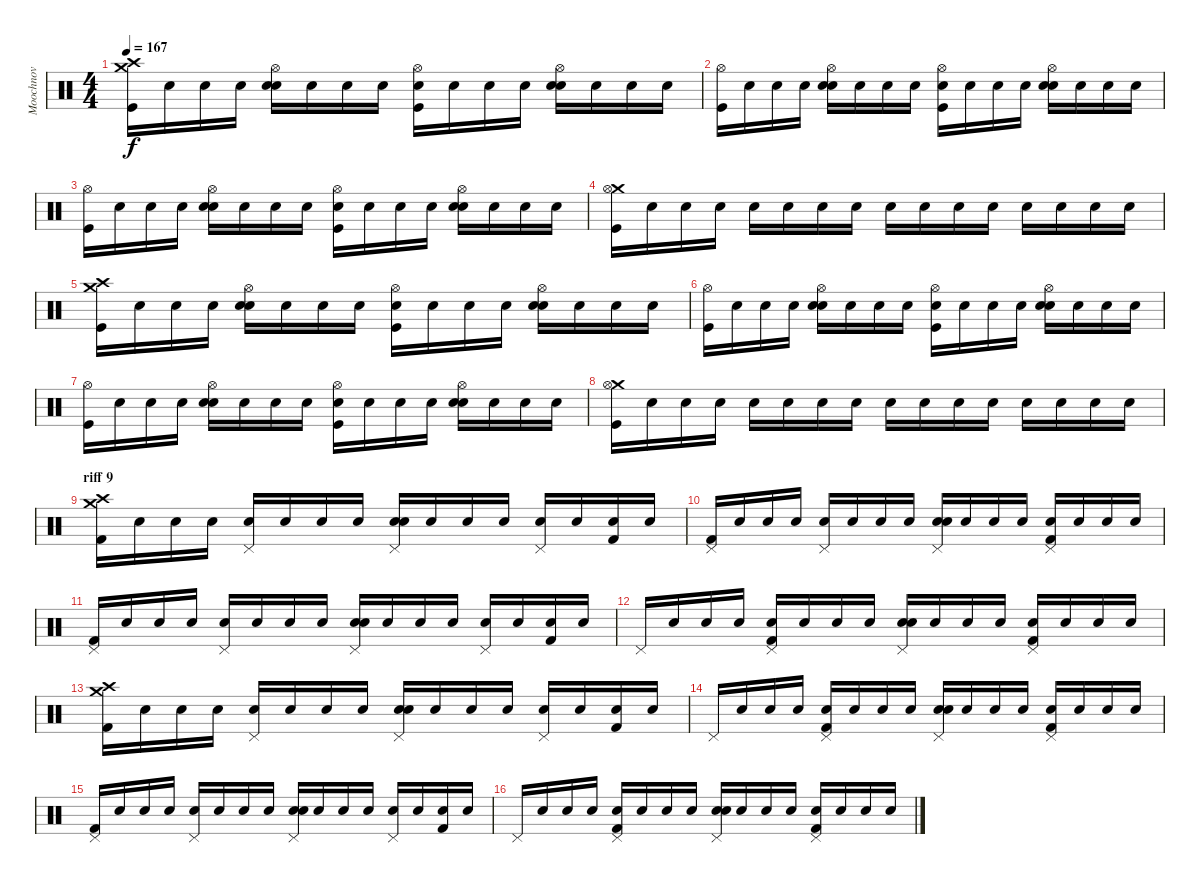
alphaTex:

\track ("Moochnov" "Moochnov") {instrument percussion}
\staff {score}
\articulation defaults
\ts (4 4)
\tempo 167
\clef neutral
\ks c
("Kick (hit)" "Crash medium (hit)" "Crash high (hit)").16{dy f} "Snare (hit)"{x}.16 "Snare (hit)"{x}.16 "Snare (hit)"{x}.16 ("Snare (hit) 2" "Snare (hit)"{x} "Hi-Hat (open)").16 "Snare (hit)"{x}.16 "Snare (hit)"{x}.16 "Snare (hit)"{x}.16 ("Kick (hit)" "Snare (hit)"{x} "Hi-Hat (open)").16 "Snare (hit)"{x}.16 "Snare (hit)"{x}.16 "Snare (hit)"{x}.16 ("Snare (hit) 2" "Snare (hit)"{x} "Hi-Hat (open)").16 "Snare (hit)"{x}.16 "Snare (hit)"{x}.16 "Snare (hit)"{x}.16 |
("Kick (hit)" "Hi-Hat (open)").16 "Snare (hit)"{x}.16 "Snare (hit)"{x}.16 "Snare (hit)"{x}.16 ("Snare (hit) 2" "Snare (hit)"{x} "Hi-Hat (open)").16 "Snare (hit)"{x}.16 "Snare (hit)"{x}.16 "Snare (hit)"{x}.16 ("Kick (hit)" "Snare (hit)"{x} "Hi-Hat (open)").16 "Snare (hit)"{x}.16 "Snare (hit)"{x}.16 "Snare (hit)"{x}.16 ("Snare (hit) 2" "Snare (hit)"{x} "Hi-Hat (open)").16 "Snare (hit)"{x}.16 "Snare (hit)"{x}.16 "Snare (hit)"{x}.16 |
("Kick (hit)" "Hi-Hat (open)").16 "Snare (hit)"{x}.16 "Snare (hit)"{x}.16 "Snare (hit)"{x}.16 ("Snare (hit) 2" "Snare (hit)"{x} "Hi-Hat (open)").16 "Snare (hit)"{x}.16 "Snare (hit)"{x}.16 "Snare (hit)"{x}.16 ("Kick (hit)" "Snare (hit)"{x} "Hi-Hat (open)").16 "Snare (hit)"{x}.16 "Snare (hit)"{x}.16 "Snare (hit)"{x}.16 ("Snare (hit) 2" "Snare (hit)"{x} "Hi-Hat (open)").16 "Snare (hit)"{x}.16 "Snare (hit)"{x}.16 "Snare (hit)"{x}.16 |
("Kick (hit)" "Crash medium (hit)" "Hi-Hat (open)").16 "Snare (hit)"{x}.16 "Snare (hit)"{x}.16 "Snare (hit)"{x}.16 "Snare (hit)"{x}.16 "Snare (hit)"{x}.16 "Snare (hit)"{x}.16 "Snare (hit)"{x}.16 "Snare (hit)"{x}.16 "Snare (hit)"{x}.16 "Snare (hit)"{x}.16 "Snare (hit)"{x}.16 "Snare (hit)"{x}.16 "Snare (hit)"{x}.16 "Snare (hit)"{x}.16 "Snare (hit)"{x}.16 |
("Kick (hit)" "Crash medium (hit)" "Crash high (hit)").16 "Snare (hit)"{x}.16 "Snare (hit)"{x}.16 "Snare (hit)"{x}.16 ("Snare (hit) 2" "Snare (hit)"{x} "Hi-Hat (open)").16 "Snare (hit)"{x}.16 "Snare (hit)"{x}.16 "Snare (hit)"{x}.16 ("Kick (hit)" "Snare (hit)"{x} "Hi-Hat (open)").16 "Snare (hit)"{x}.16 "Snare (hit)"{x}.16 "Snare (hit)"{x}.16 ("Snare (hit) 2" "Snare (hit)"{x} "Hi-Hat (open)").16 "Snare (hit)"{x}.16 "Snare (hit)"{x}.16 "Snare (hit)"{x}.16 |
("Kick (hit)" "Hi-Hat (open)").16 "Snare (hit)"{x}.16 "Snare (hit)"{x}.16 "Snare (hit)"{x}.16 ("Snare (hit) 2" "Snare (hit)"{x} "Hi-Hat (open)").16 "Snare (hit)"{x}.16 "Snare (hit)"{x}.16 "Snare (hit)"{x}.16 ("Kick (hit)" "Snare (hit)"{x} "Hi-Hat (open)").16 "Snare (hit)"{x}.16 "Snare (hit)"{x}.16 "Snare (hit)"{x}.16 ("Snare (hit) 2" "Snare (hit)"{x} "Hi-Hat (open)").16 "Snare (hit)"{x}.16 "Snare (hit)"{x}.16 "Snare (hit)"{x}.16 |
("Kick (hit)" "Hi-Hat (open)").16 "Snare (hit)"{x}.16 "Snare (hit)"{x}.16 "Snare (hit)"{x}.16 ("Snare (hit) 2" "Snare (hit)"{x} "Hi-Hat (open)").16 "Snare (hit)"{x}.16 "Snare (hit)"{x}.16 "Snare (hit)"{x}.16 ("Kick (hit)" "Snare (hit)"{x} "Hi-Hat (open)").16 "Snare (hit)"{x}.16 "Snare (hit)"{x}.16 "Snare (hit)"{x}.16 ("Snare (hit) 2" "Snare (hit)"{x} "Hi-Hat (open)").16 "Snare (hit)"{x}.16 "Snare (hit)"{x}.16 "Snare (hit)"{x}.16 |
("Kick (hit)" "Crash medium (hit)" "Hi-Hat (open)").16 "Snare (hit)"{x}.16 "Snare (hit)"{x}.16 "Snare (hit)"{x}.16 "Snare (hit)"{x}.16 "Snare (hit)"{x}.16 "Snare (hit)"{x}.16 "Snare (hit)"{x}.16 "Snare (hit)"{x}.16 "Snare (hit)"{x}.16 "Snare (hit)"{x}.16 "Snare (hit)"{x}.16 "Snare (hit)"{x}.16 "Snare (hit)"{x}.16 "Snare (hit)"{x}.16 "Snare (hit)"{x}.16 |
\section ("" "riff 9")
("Kick (hit) 2" "Crash medium (hit)" "Crash high (hit)").16 "Snare (hit)"{x}.16 "Snare (hit)"{x}.16 "Snare (hit)"{x}.16 ("Snare (hit)"{x} "Pedal Hi-Hat (hit)").16 "Snare (hit)"{x}.16 "Snare (hit)"{x}.16 "Snare (hit)"{x}.16 ("Snare (hit) 2" "Snare (hit)"{x} "Pedal Hi-Hat (hit)").16 "Snare (hit)"{x}.16 "Snare (hit)"{x}.16 "Snare (hit)"{x}.16 ("Snare (hit)"{x} "Pedal Hi-Hat (hit)").16 "Snare (hit)"{x}.16 ("Kick (hit) 2" "Snare (hit)"{x}).16 "Snare (hit)"{x}.16 |
("Kick (hit) 2" "Pedal Hi-Hat (hit)").16 "Snare (hit)"{x}.16 "Snare (hit)"{x}.16 "Snare (hit)"{x}.16 ("Snare (hit)"{x} "Pedal Hi-Hat (hit)").16 "Snare (hit)"{x}.16 "Snare (hit)"{x}.16 "Snare (hit)"{x}.16 ("Snare (hit) 2" "Snare (hit)"{x} "Pedal Hi-Hat (hit)").16 "Snare (hit)"{x}.16 "Snare (hit)"{x}.16 "Snare (hit)"{x}.16 ("Kick (hit) 2" "Snare (hit)"{x} "Pedal Hi-Hat (hit)").16 "Snare (hit)"{x}.16 "Snare (hit)"{x}.16 "Snare (hit)"{x}.16 |
("Kick (hit) 2" "Pedal Hi-Hat (hit)").16 "Snare (hit)"{x}.16 "Snare (hit)"{x}.16 "Snare (hit)"{x}.16 ("Snare (hit)"{x} "Pedal Hi-Hat (hit)").16 "Snare (hit)"{x}.16 "Snare (hit)"{x}.16 "Snare (hit)"{x}.16 ("Snare (hit) 2" "Snare (hit)"{x} "Pedal Hi-Hat (hit)").16 "Snare (hit)"{x}.16 "Snare (hit)"{x}.16 "Snare (hit)"{x}.16 ("Snare (hit)"{x} "Pedal Hi-Hat (hit)").16 "Snare (hit)"{x}.16 ("Kick (hit) 2" "Snare (hit)"{x}).16 "Snare (hit)"{x}.16 |
"Pedal Hi-Hat (hit)".16 "Snare (hit)"{x}.16 "Snare (hit)"{x}.16 "Snare (hit)"{x}.16 ("Kick (hit) 2" "Snare (hit)"{x} "Pedal Hi-Hat (hit)").16 "Snare (hit)"{x}.16 "Snare (hit)"{x}.16 "Snare (hit)"{x}.16 ("Snare (hit) 2" "Snare (hit)"{x} "Pedal Hi-Hat (hit)").16 "Snare (hit)"{x}.16 "Snare (hit)"{x}.16 "Snare (hit)"{x}.16 ("Kick (hit) 2" "Snare (hit)"{x} "Pedal Hi-Hat (hit)").16 "Snare (hit)"{x}.16 "Snare (hit)"{x}.16 "Snare (hit)"{x}.16 |
("Kick (hit) 2" "Crash medium (hit)" "Crash high (hit)").16 "Snare (hit)"{x}.16 "Snare (hit)"{x}.16 "Snare (hit)"{x}.16 ("Snare (hit)"{x} "Pedal Hi-Hat (hit)").16 "Snare (hit)"{x}.16 "Snare (hit)"{x}.16 "Snare (hit)"{x}.16 ("Snare (hit) 2" "Snare (hit)"{x} "Pedal Hi-Hat (hit)").16 "Snare (hit)"{x}.16 "Snare (hit)"{x}.16 "Snare (hit)"{x}.16 ("Snare (hit)"{x} "Pedal Hi-Hat (hit)").16 "Snare (hit)"{x}.16 ("Kick (hit) 2" "Snare (hit)"{x}).16 "Snare (hit)"{x}.16 |
"Pedal Hi-Hat (hit)".16 "Snare (hit)"{x}.16 "Snare (hit)"{x}.16 "Snare (hit)"{x}.16 ("Kick (hit) 2" "Snare (hit)"{x} "Pedal Hi-Hat (hit)").16 "Snare (hit)"{x}.16 "Snare (hit)"{x}.16 "Snare (hit)"{x}.16 ("Snare (hit) 2" "Snare (hit)"{x} "Pedal Hi-Hat (hit)").16 "Snare (hit)"{x}.16 "Snare (hit)"{x}.16 "Snare (hit)"{x}.16 ("Kick (hit) 2" "Snare (hit)"{x} "Pedal Hi-Hat (hit)").16 "Snare (hit)"{x}.16 "Snare (hit)"{x}.16 "Snare (hit)"{x}.16 |
("Kick (hit) 2" "Pedal Hi-Hat (hit)").16 "Snare (hit)"{x}.16 "Snare (hit)"{x}.16 "Snare (hit)"{x}.16 ("Snare (hit)"{x} "Pedal Hi-Hat (hit)").16 "Snare (hit)"{x}.16 "Snare (hit)"{x}.16 "Snare (hit)"{x}.16 ("Snare (hit) 2" "Snare (hit)"{x} "Pedal Hi-Hat (hit)").16 "Snare (hit)"{x}.16 "Snare (hit)"{x}.16 "Snare (hit)"{x}.16 ("Snare (hit)"{x} "Pedal Hi-Hat (hit)").16 "Snare (hit)"{x}.16 ("Kick (hit) 2" "Snare (hit)"{x}).16 "Snare (hit)"{x}.16 |
"Pedal Hi-Hat (hit)".16 "Snare (hit)"{x}.16 "Snare (hit)"{x}.16 "Snare (hit)"{x}.16 ("Kick (hit) 2" "Snare (hit)"{x} "Pedal Hi-Hat (hit)").16 "Snare (hit)"{x}.16 "Snare (hit)"{x}.16 "Snare (hit)"{x}.16 ("Snare (hit) 2" "Snare (hit)"{x} "Pedal Hi-Hat (hit)").16 "Snare (hit)"{x}.16 "Snare (hit)"{x}.16 "Snare (hit)"{x}.16 ("Kick (hit) 2" "Snare (hit)"{x} "Pedal Hi-Hat (hit)").16 "Snare (hit)"{x}.16 "Snare (hit)"{x}.16 "Snare (hit)"{x}.16
